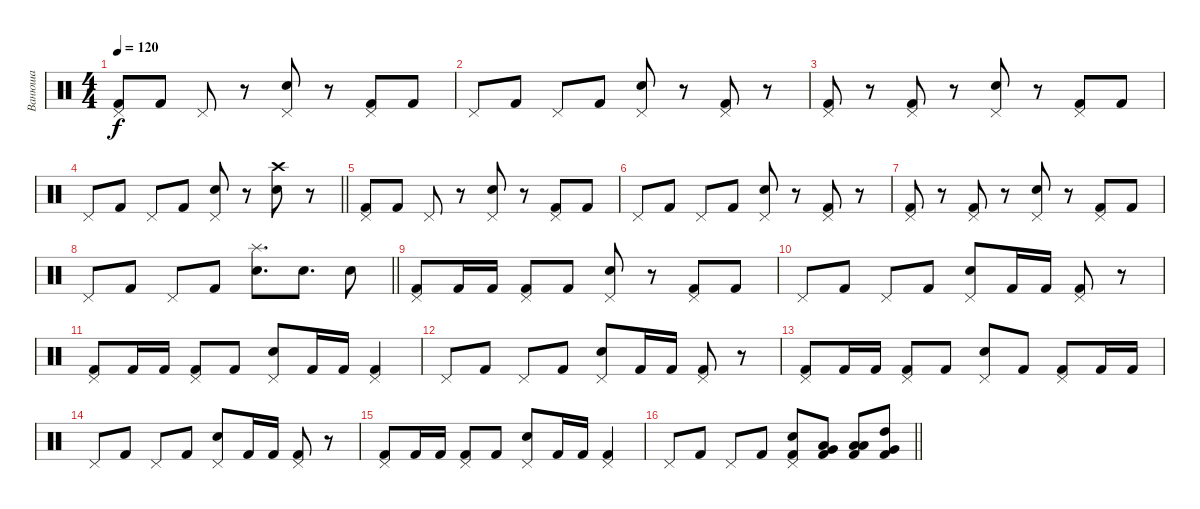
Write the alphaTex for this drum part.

\track ("Ванюша" "Ванюша") {instrument percussion}
\staff {score}
\articulation defaults
\ts (4 4)
\tempo 120
\clef neutral
\ks c
("Pedal Hi-Hat (hit)" "Kick (hit) 2").8{dy f} "Kick (hit) 2".8 "Pedal Hi-Hat (hit)".8 r.8 ("Pedal Hi-Hat (hit)" "Snare (hit) 2").8 r.8 ("Pedal Hi-Hat (hit)" "Kick (hit) 2").8 "Kick (hit) 2".8 |
"Pedal Hi-Hat (hit)".8 "Kick (hit) 2".8 "Pedal Hi-Hat (hit)".8 "Kick (hit) 2".8 ("Pedal Hi-Hat (hit)" "Snare (hit) 2").8 r.8 ("Pedal Hi-Hat (hit)" "Kick (hit) 2").8 r.8 |
("Pedal Hi-Hat (hit)" "Kick (hit) 2").8 r.8 ("Pedal Hi-Hat (hit)" "Kick (hit) 2").8 r.8 ("Pedal Hi-Hat (hit)" "Snare (hit) 2").8 r.8 ("Pedal Hi-Hat (hit)" "Kick (hit) 2").8 "Kick (hit) 2".8 |
\barLineRight lightlight "Pedal Hi-Hat (hit)".8 "Kick (hit) 2".8 "Pedal Hi-Hat (hit)".8 "Kick (hit) 2".8
("Pedal Hi-Hat (hit)" "Snare (hit) 2").8 r.8 ("Crash high (hit)" "Snare (hit) 2").8 r.8 |
("Pedal Hi-Hat (hit)" "Kick (hit) 2").8 "Kick (hit) 2".8 "Pedal Hi-Hat (hit)".8 r.8 ("Pedal Hi-Hat (hit)" "Snare (hit) 2").8 r.8 ("Pedal Hi-Hat (hit)" "Kick (hit) 2").8 "Kick (hit) 2".8 |
"Pedal Hi-Hat (hit)".8 "Kick (hit) 2".8 "Pedal Hi-Hat (hit)".8 "Kick (hit) 2".8 ("Pedal Hi-Hat (hit)" "Snare (hit) 2").8 r.8 ("Pedal Hi-Hat (hit)" "Kick (hit) 2").8 r.8 |
("Pedal Hi-Hat (hit)" "Kick (hit) 2").8 r.8 ("Pedal Hi-Hat (hit)" "Kick (hit) 2").8 r.8 ("Pedal Hi-Hat (hit)" "Snare (hit) 2").8 r.8 ("Pedal Hi-Hat (hit)" "Kick (hit) 2").8 "Kick (hit) 2".8 |
\barLineRight lightlight "Pedal Hi-Hat (hit)".8 "Kick (hit) 2".8 "Pedal Hi-Hat (hit)".8 "Kick (hit) 2".8
("Splash (hit)" "Snare (hit) 2").8{d} "Snare (hit) 2".8{d} "Snare (hit) 2".8 |
("Pedal Hi-Hat (hit)" "Kick (hit) 2").8 "Kick (hit) 2".16 "Kick (hit) 2".16 ("Pedal Hi-Hat (hit)" "Kick (hit) 2").8 "Kick (hit) 2".8 ("Pedal Hi-Hat (hit)" "Snare (hit) 2").8 r.8 ("Pedal Hi-Hat (hit)" "Kick (hit) 2").8 "Kick (hit) 2".8 |
"Pedal Hi-Hat (hit)".8 "Kick (hit) 2".8 "Pedal Hi-Hat (hit)".8 "Kick (hit) 2".8 ("Pedal Hi-Hat (hit)" "Snare (hit) 2").8 "Kick (hit) 2".16 "Kick (hit) 2".16 ("Pedal Hi-Hat (hit)" "Kick (hit) 2").8 r.8 |
("Pedal Hi-Hat (hit)" "Kick (hit) 2").8 "Kick (hit) 2".16 "Kick (hit) 2".16 ("Pedal Hi-Hat (hit)" "Kick (hit) 2").8 "Kick (hit) 2".8 ("Pedal Hi-Hat (hit)" "Snare (hit) 2").8 "Kick (hit) 2".16 "Kick (hit) 2".16 ("Pedal Hi-Hat (hit)" "Kick (hit) 2").4 |
"Pedal Hi-Hat (hit)".8 "Kick (hit) 2".8 "Pedal Hi-Hat (hit)".8 "Kick (hit) 2".8 ("Pedal Hi-Hat (hit)" "Snare (hit) 2").8 "Kick (hit) 2".16 "Kick (hit) 2".16 ("Pedal Hi-Hat (hit)" "Kick (hit) 2").8 r.8 |
("Pedal Hi-Hat (hit)" "Kick (hit) 2").8 "Kick (hit) 2".16 "Kick (hit) 2".16 ("Pedal Hi-Hat (hit)" "Kick (hit) 2").8 "Kick (hit) 2".8 ("Pedal Hi-Hat (hit)" "Snare (hit) 2").8 "Kick (hit) 2".8 ("Pedal Hi-Hat (hit)" "Kick (hit) 2").8 "Kick (hit) 2".16 "Kick (hit) 2".16 |
"Pedal Hi-Hat (hit)".8 "Kick (hit) 2".8 "Pedal Hi-Hat (hit)".8 "Kick (hit) 2".8 ("Pedal Hi-Hat (hit)" "Snare (hit) 2").8 "Kick (hit) 2".16 "Kick (hit) 2".16 ("Pedal Hi-Hat (hit)" "Kick (hit) 2").8 r.8 |
("Pedal Hi-Hat (hit)" "Kick (hit) 2").8 "Kick (hit) 2".16 "Kick (hit) 2".16 ("Pedal Hi-Hat (hit)" "Kick (hit) 2").8 "Kick (hit) 2".8 ("Pedal Hi-Hat (hit)" "Snare (hit) 2").8 "Kick (hit) 2".16 "Kick (hit) 2".16 ("Pedal Hi-Hat (hit)" "Kick (hit) 2").4 |
\barLineRight lightlight "Pedal Hi-Hat (hit)".8 "Kick (hit) 2".8 "Pedal Hi-Hat (hit)".8 "Kick (hit) 2".8
("Pedal Hi-Hat (hit)" "Snare (hit) 2" "Kick (hit) 2").8 ("Very Low Tom (hit)" "Low Floor Tom (hit)" "Kick (hit) 2").8 ("Low Tom (hit)" "Low Floor Tom (hit)" "Kick (hit) 2").8 ("High Tom (hit)" "Very Low Tom (hit)" "Kick (hit) 2").8
